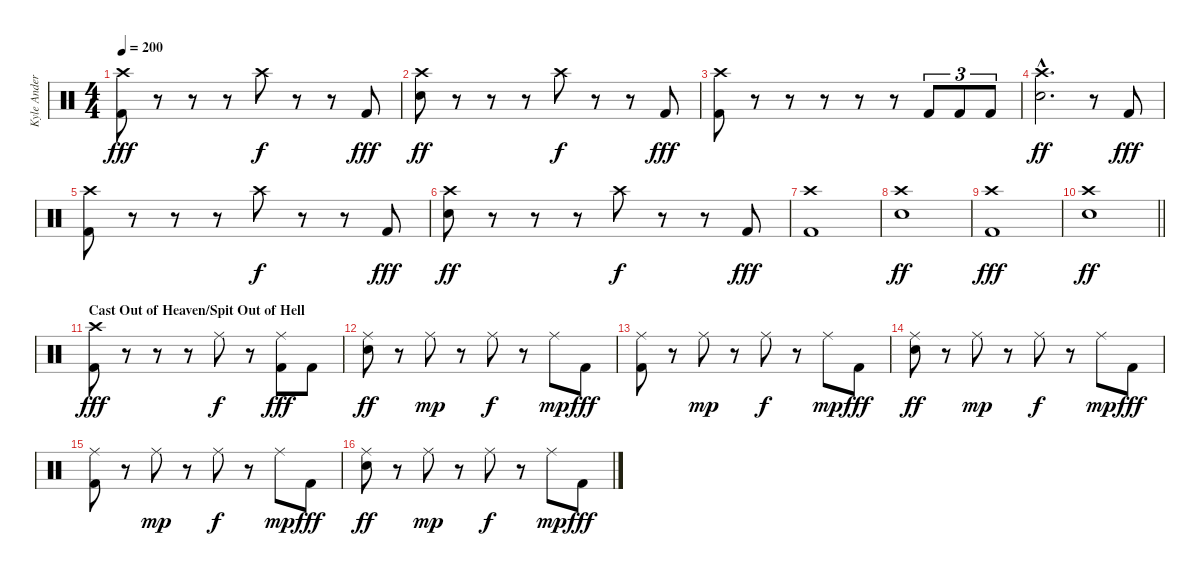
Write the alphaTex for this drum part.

\track ("Kyle Anderson" "Kyle Ander") {instrument percussion}
\staff {score}
\articulation defaults
\ts (4 4)
\tempo 200
\clef neutral
\ks c
("Crash high (hit)" "Kick (hit) 2").8{dy fff} r.8 r.8 r.8 "Crash high (hit)".8{dy f} r.8 r.8 "Kick (hit) 2".8{dy fff} |
("Crash high (hit)" "Electric Snare (hit)").8{dy ff} r.8 r.8 r.8 "Crash high (hit)".8{dy f} r.8 r.8 "Kick (hit) 2".8{dy fff} |
("Crash high (hit)" "Kick (hit) 2").8 r.8 r.8 r.8 r.8 r.8 "Kick (hit) 2".8{tu (3 2)} "Kick (hit) 2".8{tu (3 2)} "Kick (hit) 2".8{tu (3 2)} |
("Crash high (hit)"{hac} "Electric Snare (hit)"{hac}).2{d dy ff} r.8 "Kick (hit) 2".8{dy fff} |
("Crash high (hit)" "Kick (hit) 2").8 r.8 r.8 r.8 "Crash high (hit)".8{dy f} r.8 r.8 "Kick (hit) 2".8{dy fff} |
("Crash high (hit)" "Electric Snare (hit)").8{dy ff} r.8 r.8 r.8 "Crash high (hit)".8{dy f} r.8 r.8 "Kick (hit) 2".8{dy fff} |
("Crash high (hit)" "Kick (hit) 2").1 |
("Crash high (hit)" "Electric Snare (hit)").1{dy ff} |
("Crash high (hit)" "Kick (hit) 2").1{dy fff} |
\barLineRight lightlight
("Crash high (hit)" "Electric Snare (hit)").1{dy ff} |
\section ("" "Cast Out of Heaven/Spit Out of Hell")
("Crash high (hit)" "Kick (hit) 2").8{dy fff} r.8 r.8 r.8 "Ride (middle)".8{dy f} r.8 ("Ride (middle)" "Kick (hit) 2").8{dy fff} "Kick (hit) 2".8 |
("Ride (middle)" "Electric Snare (hit)").8{dy ff} r.8 "Ride (middle)".8{dy mp} r.8 "Ride (middle)".8{dy f} r.8 "Ride (middle)".8{dy mp} "Kick (hit) 2".8{dy fff} |
("Ride (middle)" "Kick (hit) 2").8 r.8 "Ride (middle)".8{dy mp} r.8 "Ride (middle)".8{dy f} r.8 "Ride (middle)".8{dy mp} "Kick (hit) 2".8{dy fff} |
("Ride (middle)" "Electric Snare (hit)").8{dy ff} r.8 "Ride (middle)".8{dy mp} r.8 "Ride (middle)".8{dy f} r.8 "Ride (middle)".8{dy mp} "Kick (hit) 2".8{dy fff} |
("Ride (middle)" "Kick (hit) 2").8 r.8 "Ride (middle)".8{dy mp} r.8 "Ride (middle)".8{dy f} r.8 "Ride (middle)".8{dy mp} "Kick (hit) 2".8{dy fff} |
("Ride (middle)" "Electric Snare (hit)").8{dy ff} r.8 "Ride (middle)".8{dy mp} r.8 "Ride (middle)".8{dy f} r.8 "Ride (middle)".8{dy mp} "Kick (hit) 2".8{dy fff}
